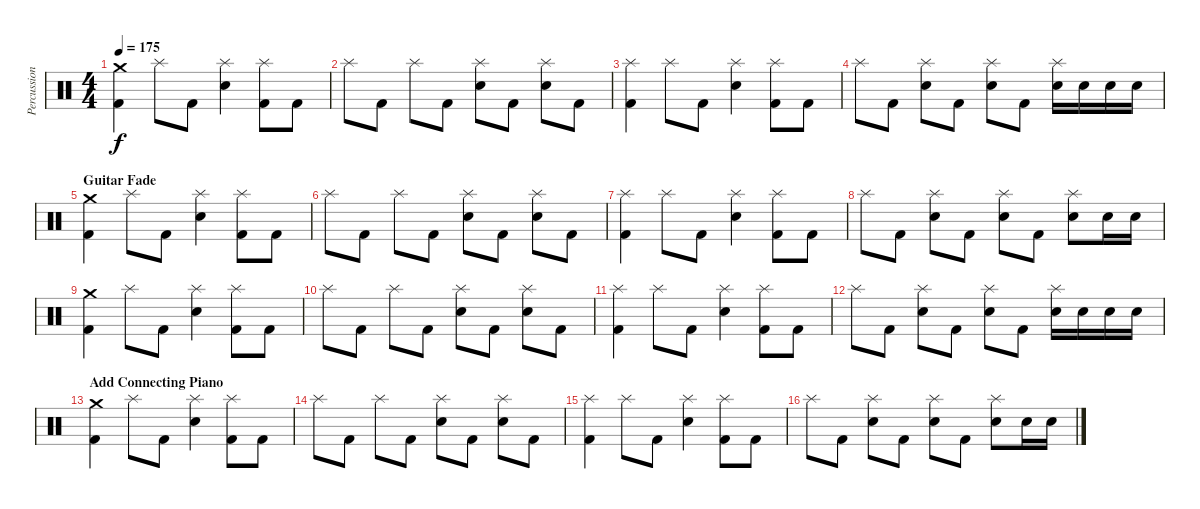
\track ("Percussion" "Percussion") {instrument percussion}
\staff {score}
\articulation defaults
\ts (4 4)
\tempo 175
\clef neutral
\ks c
("Crash medium (hit)" "Kick (hit) 2").4{dy f} "Splash (hit)".8 "Kick (hit) 2".8 ("Splash (hit)" "Electric Snare (hit)").4 ("Splash (hit)" "Kick (hit) 2").8 "Kick (hit) 2".8 |
"Splash (hit)".8 "Kick (hit) 2".8 "Splash (hit)".8 "Kick (hit) 2".8 ("Splash (hit)" "Electric Snare (hit)").8 "Kick (hit) 2".8 ("Splash (hit)" "Electric Snare (hit)").8 "Kick (hit) 2".8 |
("Splash (hit)" "Kick (hit) 2").4 "Splash (hit)".8 "Kick (hit) 2".8 ("Splash (hit)" "Electric Snare (hit)").4 ("Splash (hit)" "Kick (hit) 2").8 "Kick (hit) 2".8 |
"Splash (hit)".8 "Kick (hit) 2".8 ("Splash (hit)" "Electric Snare (hit)").8 "Kick (hit) 2".8 ("Splash (hit)" "Electric Snare (hit)").8 "Kick (hit) 2".8 ("Splash (hit)" "Electric Snare (hit)").16 "Electric Snare (hit)".16 "Electric Snare (hit)".16 "Electric Snare (hit)".16 |
\section ("" "Guitar Fade")
("Crash medium (hit)" "Kick (hit) 2").4 "Splash (hit)".8 "Kick (hit) 2".8 ("Splash (hit)" "Electric Snare (hit)").4 ("Splash (hit)" "Kick (hit) 2").8 "Kick (hit) 2".8 |
"Splash (hit)".8 "Kick (hit) 2".8 "Splash (hit)".8 "Kick (hit) 2".8 ("Splash (hit)" "Electric Snare (hit)").8 "Kick (hit) 2".8 ("Splash (hit)" "Electric Snare (hit)").8 "Kick (hit) 2".8 |
("Splash (hit)" "Kick (hit) 2").4 "Splash (hit)".8 "Kick (hit) 2".8 ("Splash (hit)" "Electric Snare (hit)").4 ("Splash (hit)" "Kick (hit) 2").8 "Kick (hit) 2".8 |
"Splash (hit)".8 "Kick (hit) 2".8 ("Splash (hit)" "Electric Snare (hit)").8 "Kick (hit) 2".8 ("Splash (hit)" "Electric Snare (hit)").8 "Kick (hit) 2".8 ("Splash (hit)" "Electric Snare (hit)").8 "Electric Snare (hit)".16 "Electric Snare (hit)".16 |
("Crash medium (hit)" "Kick (hit) 2").4 "Splash (hit)".8 "Kick (hit) 2".8 ("Splash (hit)" "Electric Snare (hit)").4 ("Splash (hit)" "Kick (hit) 2").8 "Kick (hit) 2".8 |
"Splash (hit)".8 "Kick (hit) 2".8 "Splash (hit)".8 "Kick (hit) 2".8 ("Splash (hit)" "Electric Snare (hit)").8 "Kick (hit) 2".8 ("Splash (hit)" "Electric Snare (hit)").8 "Kick (hit) 2".8 |
("Splash (hit)" "Kick (hit) 2").4 "Splash (hit)".8 "Kick (hit) 2".8 ("Splash (hit)" "Electric Snare (hit)").4 ("Splash (hit)" "Kick (hit) 2").8 "Kick (hit) 2".8 |
"Splash (hit)".8 "Kick (hit) 2".8 ("Splash (hit)" "Electric Snare (hit)").8 "Kick (hit) 2".8 ("Splash (hit)" "Electric Snare (hit)").8 "Kick (hit) 2".8 ("Splash (hit)" "Electric Snare (hit)").16 "Electric Snare (hit)".16 "Electric Snare (hit)".16 "Electric Snare (hit)".16 |
\section ("" "Add Connecting Piano")
("Crash medium (hit)" "Kick (hit) 2").4 "Splash (hit)".8 "Kick (hit) 2".8 ("Splash (hit)" "Electric Snare (hit)").4 ("Splash (hit)" "Kick (hit) 2").8 "Kick (hit) 2".8 |
"Splash (hit)".8 "Kick (hit) 2".8 "Splash (hit)".8 "Kick (hit) 2".8 ("Splash (hit)" "Electric Snare (hit)").8 "Kick (hit) 2".8 ("Splash (hit)" "Electric Snare (hit)").8 "Kick (hit) 2".8 |
("Splash (hit)" "Kick (hit) 2").4 "Splash (hit)".8 "Kick (hit) 2".8 ("Splash (hit)" "Electric Snare (hit)").4 ("Splash (hit)" "Kick (hit) 2").8 "Kick (hit) 2".8 |
"Splash (hit)".8 "Kick (hit) 2".8 ("Splash (hit)" "Electric Snare (hit)").8 "Kick (hit) 2".8 ("Splash (hit)" "Electric Snare (hit)").8 "Kick (hit) 2".8 ("Splash (hit)" "Electric Snare (hit)").8 "Electric Snare (hit)".16 "Electric Snare (hit)".16
